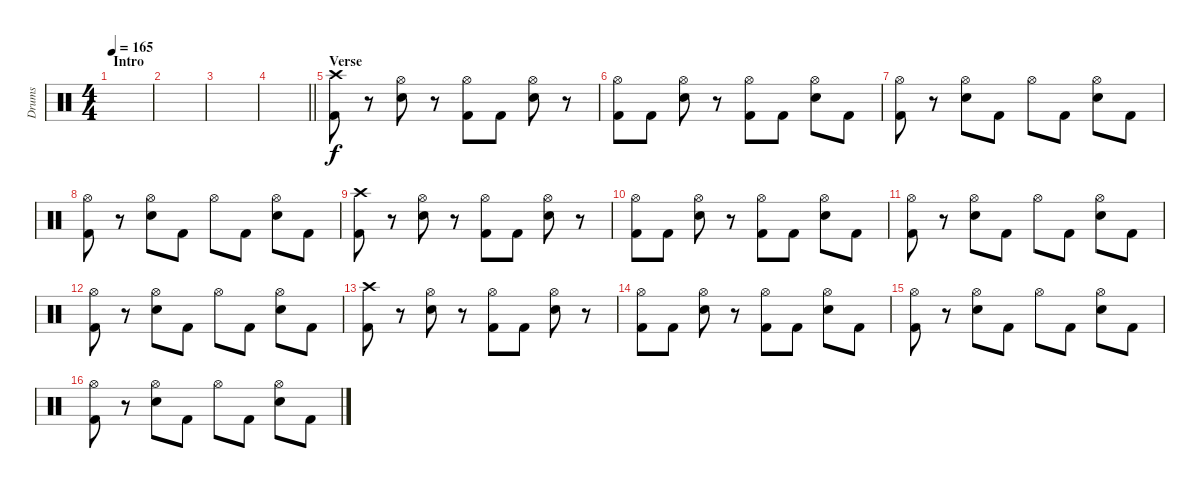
\track ("Drums" "Drums") {instrument percussion}
\staff {score}
\articulation defaults
\ts (4 4)
\section ("" "Intro")
\tempo 165
\clef neutral
\ks c
|
|
|
\barLineRight lightlight
|
\section ("" "Verse")
("Crash high (hit)" "Kick (hit) 2").8 r.8 ("Hi-Hat (open)" "Electric Snare (hit)").8 r.8 ("Hi-Hat (open)" "Kick (hit) 2").8 "Kick (hit) 2".8 ("Hi-Hat (open)" "Electric Snare (hit)").8 r.8 |
("Hi-Hat (open)" "Kick (hit) 2").8 "Kick (hit) 2".8 ("Hi-Hat (open)" "Electric Snare (hit)").8 r.8 ("Hi-Hat (open)" "Kick (hit) 2").8 "Kick (hit) 2".8 ("Hi-Hat (open)" "Electric Snare (hit)").8 "Kick (hit) 2".8 |
("Hi-Hat (open)" "Kick (hit) 2").8 r.8 ("Hi-Hat (open)" "Electric Snare (hit)").8 "Kick (hit) 2".8 "Hi-Hat (open)".8 "Kick (hit) 2".8 ("Hi-Hat (open)" "Electric Snare (hit)").8 "Kick (hit) 2".8 |
("Hi-Hat (open)" "Kick (hit) 2").8 r.8 ("Hi-Hat (open)" "Electric Snare (hit)").8 "Kick (hit) 2".8 "Hi-Hat (open)".8 "Kick (hit) 2".8 ("Hi-Hat (open)" "Electric Snare (hit)").8 "Kick (hit) 2".8 |
("Crash high (hit)" "Kick (hit) 2").8 r.8 ("Hi-Hat (open)" "Electric Snare (hit)").8 r.8 ("Hi-Hat (open)" "Kick (hit) 2").8 "Kick (hit) 2".8 ("Hi-Hat (open)" "Electric Snare (hit)").8 r.8 |
("Hi-Hat (open)" "Kick (hit) 2").8 "Kick (hit) 2".8 ("Hi-Hat (open)" "Electric Snare (hit)").8 r.8 ("Hi-Hat (open)" "Kick (hit) 2").8 "Kick (hit) 2".8 ("Hi-Hat (open)" "Electric Snare (hit)").8 "Kick (hit) 2".8 |
("Hi-Hat (open)" "Kick (hit) 2").8 r.8 ("Hi-Hat (open)" "Electric Snare (hit)").8 "Kick (hit) 2".8 "Hi-Hat (open)".8 "Kick (hit) 2".8 ("Hi-Hat (open)" "Electric Snare (hit)").8 "Kick (hit) 2".8 |
("Hi-Hat (open)" "Kick (hit) 2").8 r.8 ("Hi-Hat (open)" "Electric Snare (hit)").8 "Kick (hit) 2".8 "Hi-Hat (open)".8 "Kick (hit) 2".8 ("Hi-Hat (open)" "Electric Snare (hit)").8 "Kick (hit) 2".8 |
("Crash high (hit)" "Kick (hit) 2").8 r.8 ("Hi-Hat (open)" "Electric Snare (hit)").8 r.8 ("Hi-Hat (open)" "Kick (hit) 2").8 "Kick (hit) 2".8 ("Hi-Hat (open)" "Electric Snare (hit)").8 r.8 |
("Hi-Hat (open)" "Kick (hit) 2").8 "Kick (hit) 2".8 ("Hi-Hat (open)" "Electric Snare (hit)").8 r.8 ("Hi-Hat (open)" "Kick (hit) 2").8 "Kick (hit) 2".8 ("Hi-Hat (open)" "Electric Snare (hit)").8 "Kick (hit) 2".8 |
("Hi-Hat (open)" "Kick (hit) 2").8 r.8 ("Hi-Hat (open)" "Electric Snare (hit)").8 "Kick (hit) 2".8 "Hi-Hat (open)".8 "Kick (hit) 2".8 ("Hi-Hat (open)" "Electric Snare (hit)").8 "Kick (hit) 2".8 |
("Hi-Hat (open)" "Kick (hit) 2").8 r.8 ("Hi-Hat (open)" "Electric Snare (hit)").8 "Kick (hit) 2".8 "Hi-Hat (open)".8 "Kick (hit) 2".8 ("Hi-Hat (open)" "Electric Snare (hit)").8 "Kick (hit) 2".8
